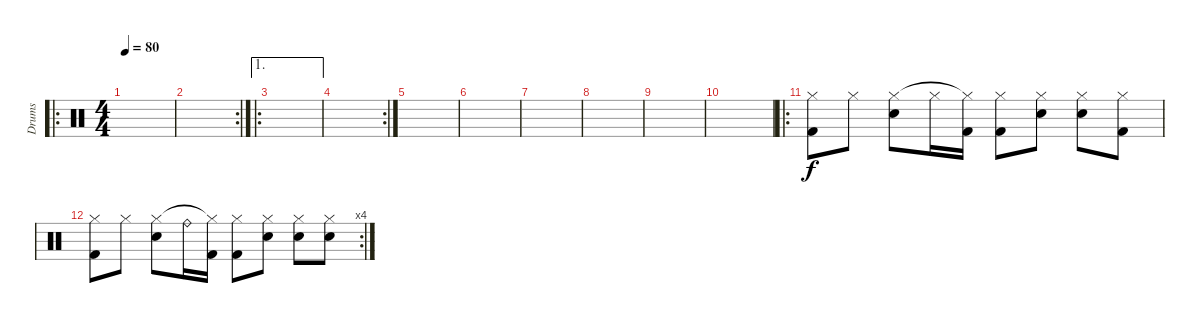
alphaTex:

\track ("Drums" "Drums") {instrument percussion}
\staff {score}
\articulation defaults
\ro
\ts (4 4)
\tempo 80
\clef neutral
\ks c
|
\rc 2
|
\ae 1
\ro
|
\rc 2
|
|
|
|
|
|
|
\ro
("Kick (hit) 2" "Hi-Hat (closed)").8 "Hi-Hat (closed)".8 ("Snare (hit) 2" "Hi-Hat (closed)").8 "Hi-Hat (closed)".16 ("Kick (hit) 2" "Hi-Hat (closed)"{t}).16 ("Kick (hit) 2" "Hi-Hat (closed)").8 ("Snare (hit) 2" "Hi-Hat (closed)").8 ("Snare (hit) 2" "Hi-Hat (closed)").8 ("Kick (hit) 2" "Hi-Hat (closed)").8 |
\rc 4
("Kick (hit) 2" "Hi-Hat (closed)").8 "Hi-Hat (closed)".8 ("Snare (hit) 2" "Hi-Hat (closed)").8 "Ride (bell)".16 ("Kick (hit) 2" "Hi-Hat (closed)"{t}).16 ("Kick (hit) 2" "Hi-Hat (closed)").8 ("Snare (hit) 2" "Hi-Hat (closed)").8 ("Snare (hit) 2" "Hi-Hat (closed)").8 ("Snare (hit) 2" "Hi-Hat (closed)").8
